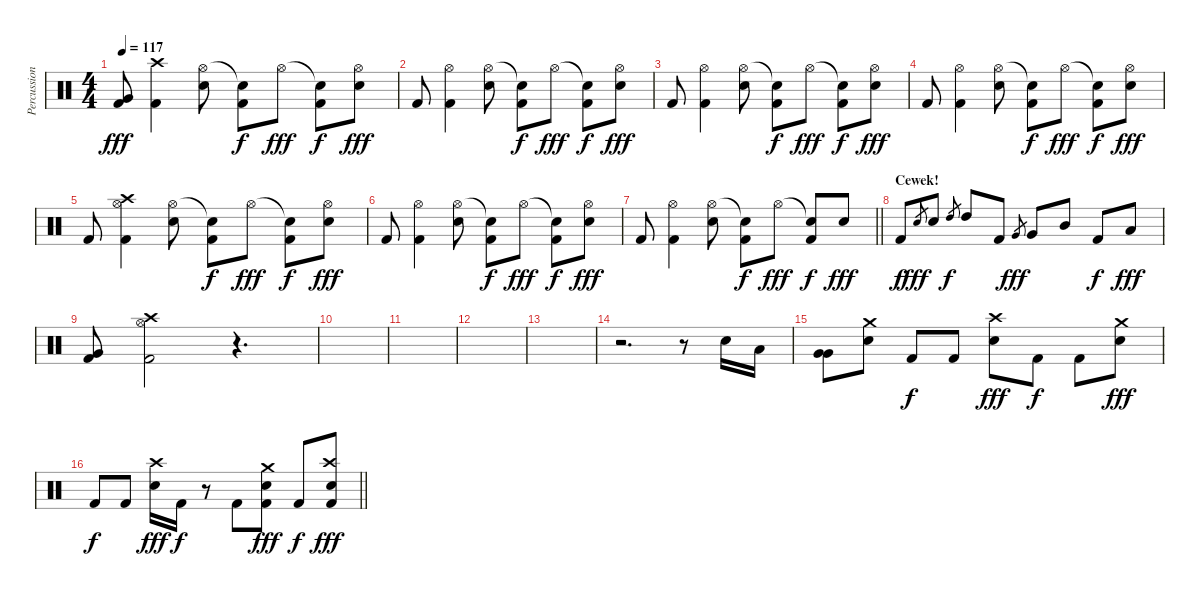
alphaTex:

\track ("Percussion 1" "Percussion") {instrument percussion}
\staff {score}
\articulation defaults
\ts (4 4)
\tempo 117
\clef neutral
\ks c
("Very Low Tom (hit)" "Kick (hit) 2").8{dy fff} ("Crash high (hit)" "Kick (hit) 2").4 ("Hi-Hat (open)" "Electric Snare (hit)").8 ("Snare (hit)"{t} "Kick (hit) 2").8{dy f} "Hi-Hat (open)".8{dy fff} ("Snare (hit)"{t} "Kick (hit) 2").8{dy f} ("Hi-Hat (open)" "Electric Snare (hit)").8{dy fff} |
"Kick (hit) 2".8 ("Hi-Hat (open)" "Kick (hit) 2").4 ("Hi-Hat (open)" "Electric Snare (hit)").8 ("Snare (hit)"{t} "Kick (hit) 2").8{dy f} "Hi-Hat (open)".8{dy fff} ("Snare (hit)"{t} "Kick (hit) 2").8{dy f} ("Hi-Hat (open)" "Electric Snare (hit)").8{dy fff} |
"Kick (hit) 2".8 ("Hi-Hat (open)" "Kick (hit) 2").4 ("Hi-Hat (open)" "Electric Snare (hit)").8 ("Snare (hit)"{t} "Kick (hit) 2").8{dy f} "Hi-Hat (open)".8{dy fff} ("Snare (hit)"{t} "Kick (hit) 2").8{dy f} ("Hi-Hat (open)" "Electric Snare (hit)").8{dy fff} |
"Kick (hit) 2".8 ("Hi-Hat (open)" "Kick (hit) 2").4 ("Hi-Hat (open)" "Electric Snare (hit)").8 ("Snare (hit)"{t} "Kick (hit) 2").8{dy f} "Hi-Hat (open)".8{dy fff} ("Snare (hit)"{t} "Kick (hit) 2").8{dy f} ("Hi-Hat (open)" "Electric Snare (hit)").8{dy fff} |
"Kick (hit) 2".8 ("Hi-Hat (open)" "Crash high (hit)" "Kick (hit) 2").4 ("Hi-Hat (open)" "Electric Snare (hit)").8 ("Snare (hit)"{t} "Kick (hit) 2").8{dy f} "Hi-Hat (open)".8{dy fff} ("Snare (hit)"{t} "Kick (hit) 2").8{dy f} ("Hi-Hat (open)" "Electric Snare (hit)").8{dy fff} |
"Kick (hit) 2".8 ("Hi-Hat (open)" "Kick (hit) 2").4 ("Hi-Hat (open)" "Electric Snare (hit)").8 ("Snare (hit)"{t} "Kick (hit) 2").8{dy f} "Hi-Hat (open)".8{dy fff} ("Snare (hit)"{t} "Kick (hit) 2").8{dy f} ("Hi-Hat (open)" "Electric Snare (hit)").8{dy fff} |
\barLineRight lightlight "Kick (hit) 2".8
("Hi-Hat (open)" "Kick (hit) 2").4 ("Hi-Hat (open)" "Electric Snare (hit)").8 ("Snare (hit)"{t} "Kick (hit) 2").8{dy f} "Hi-Hat (open)".8{dy fff} ("Snare (hit)"{t} "Kick (hit) 2").8{dy f} "Electric Snare (hit)".8{dy fff} |
\section ("" "Cewek!")
"Kick (hit) 2".8{dy f} "Electric Snare (hit)".8{gr dy fff} "Electric Snare (hit)".8 "High Tom (hit)".8{gr dy f} "High Tom (hit)".8 "Kick (hit) 2".8 "Very Low Tom (hit)".8{gr dy fff} "Very Low Tom (hit)".8 "Mid Tom (hit)".8 "Kick (hit) 2".8{dy f} "Low Tom (hit)".8{dy fff} |
("Very Low Tom (hit)" "Kick (hit) 2").8 ("Hi-Hat (open)" "Crash high (hit)" "Kick (hit) 2").2 r.4{d} |
|
|
|
|
r.2{d} r.8 "Electric Snare (hit)".16 "Low Tom (hit)".16 |
("Very Low Tom (hit)" "Very Low Tom (hit)").8 ("Electric Snare (hit)" "Crash medium (hit)").8 "Kick (hit) 2".8{dy f} "Kick (hit) 2".8 ("Electric Snare (hit)" "Crash high (hit)").8{dy fff} "Kick (hit) 2".8{dy f} "Kick (hit) 2".8 ("Electric Snare (hit)" "Crash medium (hit)").8{dy fff} |
\barLineRight lightlight "Kick (hit) 2".8{dy f} "Kick (hit) 2".8
("Electric Snare (hit)" "Crash high (hit)").16{dy fff} "Kick (hit) 2".16{dy f} r.8 "Kick (hit) 2".8 ("Electric Snare (hit)" "Crash medium (hit)" "Kick (hit) 2").8{dy fff} "Kick (hit) 2".8{dy f} ("Electric Snare (hit)" "Crash high (hit)" "Kick (hit) 2").8{dy fff}
